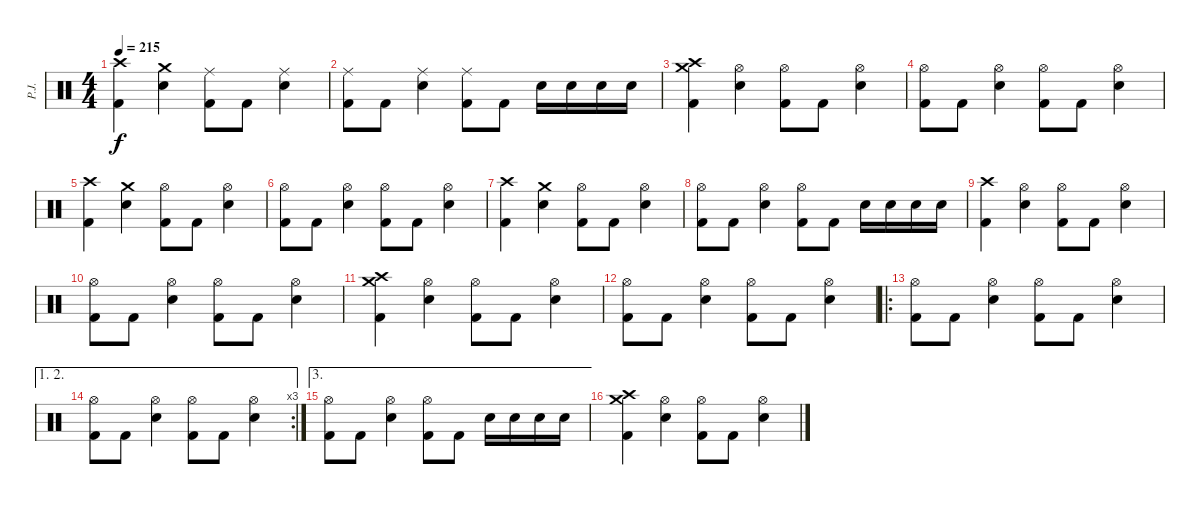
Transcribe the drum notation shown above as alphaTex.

\track ("P.J." "P.J.") {instrument percussion}
\staff {score}
\articulation defaults
\ts (4 4)
\tempo 215
\clef neutral
\ks c
("Crash high (hit)" "Kick (hit) 2").4{dy f} ("Crash medium (hit)" "Electric Snare (hit)").4 ("Ride (middle)" "Kick (hit) 2").8 "Kick (hit) 2".8 ("Ride (middle)" "Electric Snare (hit)").4 |
("Ride (middle)" "Kick (hit) 2").8 "Kick (hit) 2".8 ("Ride (middle)" "Electric Snare (hit)").4 ("Ride (middle)" "Kick (hit) 2").8 "Kick (hit) 2".8 "Electric Snare (hit)".16 "Electric Snare (hit)".16 "Electric Snare (hit)".16 "Electric Snare (hit)".16 |
("Crash high (hit)" "Crash medium (hit)" "Kick (hit) 2").4 ("Hi-Hat (open)" "Electric Snare (hit)").4 ("Hi-Hat (open)" "Kick (hit) 2").8 "Kick (hit) 2".8 ("Hi-Hat (open)" "Electric Snare (hit)").4 |
("Hi-Hat (open)" "Kick (hit) 2").8 "Kick (hit) 2".8 ("Hi-Hat (open)" "Electric Snare (hit)").4 ("Hi-Hat (open)" "Kick (hit) 2").8 "Kick (hit) 2".8 ("Hi-Hat (open)" "Electric Snare (hit)").4 |
("Crash high (hit)" "Kick (hit) 2").4 ("Crash medium (hit)" "Electric Snare (hit)").4 ("Hi-Hat (open)" "Kick (hit) 2").8 "Kick (hit) 2".8 ("Hi-Hat (open)" "Electric Snare (hit)").4 |
("Hi-Hat (open)" "Kick (hit) 2").8 "Kick (hit) 2".8 ("Hi-Hat (open)" "Electric Snare (hit)").4 ("Hi-Hat (open)" "Kick (hit) 2").8 "Kick (hit) 2".8 ("Hi-Hat (open)" "Electric Snare (hit)").4 |
("Crash high (hit)" "Kick (hit) 2").4 ("Crash medium (hit)" "Electric Snare (hit)").4 ("Hi-Hat (open)" "Kick (hit) 2").8 "Kick (hit) 2".8 ("Hi-Hat (open)" "Electric Snare (hit)").4 |
("Hi-Hat (open)" "Kick (hit) 2").8 "Kick (hit) 2".8 ("Hi-Hat (open)" "Electric Snare (hit)").4 ("Hi-Hat (open)" "Kick (hit) 2").8 "Kick (hit) 2".8 "Electric Snare (hit)".16 "Electric Snare (hit)".16 "Electric Snare (hit)".16 "Electric Snare (hit)".16 |
("Crash high (hit)" "Kick (hit) 2").4 ("Hi-Hat (open)" "Electric Snare (hit)").4 ("Hi-Hat (open)" "Kick (hit) 2").8 "Kick (hit) 2".8 ("Hi-Hat (open)" "Electric Snare (hit)").4 |
("Hi-Hat (open)" "Kick (hit) 2").8 "Kick (hit) 2".8 ("Hi-Hat (open)" "Electric Snare (hit)").4 ("Hi-Hat (open)" "Kick (hit) 2").8 "Kick (hit) 2".8 ("Hi-Hat (open)" "Electric Snare (hit)").4 |
("Crash high (hit)" "Crash medium (hit)" "Kick (hit) 2").4 ("Hi-Hat (open)" "Electric Snare (hit)").4 ("Hi-Hat (open)" "Kick (hit) 2").8 "Kick (hit) 2".8 ("Hi-Hat (open)" "Electric Snare (hit)").4 |
("Hi-Hat (open)" "Kick (hit) 2").8 "Kick (hit) 2".8 ("Hi-Hat (open)" "Electric Snare (hit)").4 ("Hi-Hat (open)" "Kick (hit) 2").8 "Kick (hit) 2".8 ("Hi-Hat (open)" "Electric Snare (hit)").4 |
\ro
("Hi-Hat (open)" "Kick (hit) 2").8 "Kick (hit) 2".8 ("Hi-Hat (open)" "Electric Snare (hit)").4 ("Hi-Hat (open)" "Kick (hit) 2").8 "Kick (hit) 2".8 ("Hi-Hat (open)" "Electric Snare (hit)").4 |
\ae (1 2)
\rc 3
("Hi-Hat (open)" "Kick (hit) 2").8 "Kick (hit) 2".8 ("Hi-Hat (open)" "Electric Snare (hit)").4 ("Hi-Hat (open)" "Kick (hit) 2").8 "Kick (hit) 2".8 ("Hi-Hat (open)" "Electric Snare (hit)").4 |
\ae 3
("Hi-Hat (open)" "Kick (hit) 2").8 "Kick (hit) 2".8 ("Hi-Hat (open)" "Electric Snare (hit)").4 ("Hi-Hat (open)" "Kick (hit) 2").8 "Kick (hit) 2".8 "Electric Snare (hit)".16 "Electric Snare (hit)".16 "Electric Snare (hit)".16 "Electric Snare (hit)".16 |
("Crash high (hit)" "Crash medium (hit)" "Kick (hit) 2").4 ("Hi-Hat (open)" "Electric Snare (hit)").4 ("Hi-Hat (open)" "Kick (hit) 2").8 "Kick (hit) 2".8 ("Hi-Hat (open)" "Electric Snare (hit)").4
